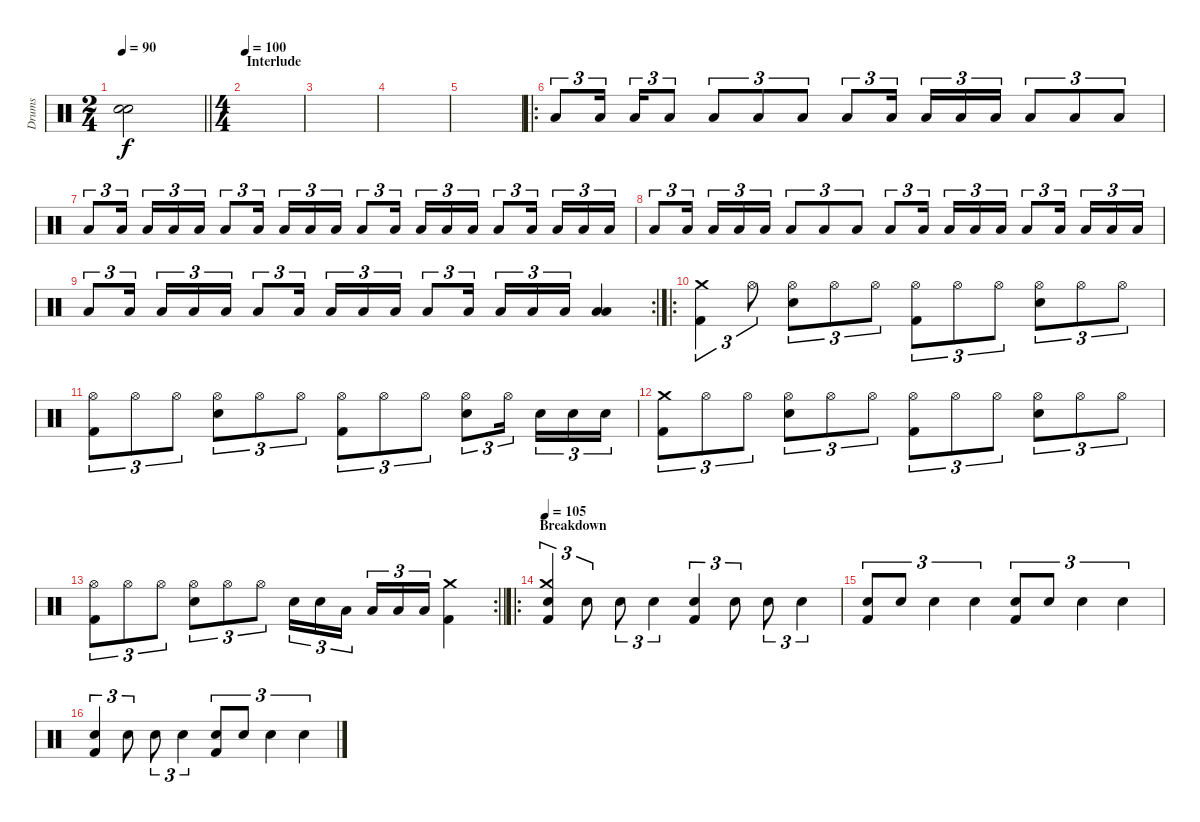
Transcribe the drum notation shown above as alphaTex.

\track ("Drums" "Drums") {instrument percussion}
\staff {score}
\articulation defaults
\ts (2 4)
\tempo 90
\clef neutral
\barLineRight lightlight
\ks c
("Snare (hit)"{t} "Snare (hit)"{t}).2{dy f} |
\ts (4 4)
\section ("" "Interlude")
\tempo 100
|
|
|
|
\ro "Low Floor Tom (hit)".8{tu (3 2)} "Low Floor Tom (hit)".16{tu (3 2) beam splitsecondary} "Low Floor Tom (hit)".16{tu (3 2)} "Low Floor Tom (hit)".8{tu (3 2)} "Low Floor Tom (hit)".8{tu (3 2)} "Low Floor Tom (hit)".8{tu (3 2)} "Low Floor Tom (hit)".8{tu (3 2)} "Low Floor Tom (hit)".8{tu (3 2)} "Low Floor Tom (hit)".16{tu (3 2) beam splitsecondary} "Low Floor Tom (hit)".16{tu (3 2)} "Low Floor Tom (hit)".16{tu (3 2)} "Low Floor Tom (hit)".16{tu (3 2)} "Low Floor Tom (hit)".8{tu (3 2)} "Low Floor Tom (hit)".8{tu (3 2)} "Low Floor Tom (hit)".8{tu (3 2)}
|
"Low Floor Tom (hit)".8{tu (3 2)} "Low Floor Tom (hit)".16{tu (3 2) beam splitsecondary} "Low Floor Tom (hit)".16{tu (3 2)} "Low Floor Tom (hit)".16{tu (3 2)} "Low Floor Tom (hit)".16{tu (3 2)} "Low Floor Tom (hit)".8{tu (3 2)} "Low Floor Tom (hit)".16{tu (3 2) beam splitsecondary} "Low Floor Tom (hit)".16{tu (3 2)} "Low Floor Tom (hit)".16{tu (3 2)} "Low Floor Tom (hit)".16{tu (3 2)} "Low Floor Tom (hit)".8{tu (3 2)} "Low Floor Tom (hit)".16{tu (3 2) beam splitsecondary} "Low Floor Tom (hit)".16{tu (3 2)} "Low Floor Tom (hit)".16{tu (3 2)} "Low Floor Tom (hit)".16{tu (3 2)} "Low Floor Tom (hit)".8{tu (3 2)} "Low Floor Tom (hit)".16{tu (3 2) beam splitsecondary} "Low Floor Tom (hit)".16{tu (3 2)} "Low Tom (hit)".16{tu (3 2)} "Low Tom (hit)".16{tu (3 2)} |
"Low Floor Tom (hit)".8{tu (3 2)} "Low Floor Tom (hit)".16{tu (3 2) beam splitsecondary} "Low Floor Tom (hit)".16{tu (3 2)} "Low Floor Tom (hit)".16{tu (3 2)} "Low Floor Tom (hit)".16{tu (3 2)} "Low Floor Tom (hit)".8{tu (3 2)} "Low Floor Tom (hit)".8{tu (3 2)} "Low Floor Tom (hit)".8{tu (3 2)} "Low Floor Tom (hit)".8{tu (3 2)} "Low Floor Tom (hit)".16{tu (3 2) beam splitsecondary} "Low Floor Tom (hit)".16{tu (3 2)} "Low Floor Tom (hit)".16{tu (3 2)} "Low Floor Tom (hit)".16{tu (3 2)} "Low Floor Tom (hit)".8{tu (3 2)} "Low Floor Tom (hit)".16{tu (3 2) beam splitsecondary} "Low Floor Tom (hit)".16{tu (3 2)} "Low Floor Tom (hit)".16{tu (3 2)} "Low Floor Tom (hit)".16{tu (3 2)} |
\rc 2 "Low Floor Tom (hit)".8{tu (3 2)} "Low Floor Tom (hit)".16{tu (3 2) beam splitsecondary} "Low Floor Tom (hit)".16{tu (3 2)} "Low Floor Tom (hit)".16{tu (3 2)} "Low Floor Tom (hit)".16{tu (3 2)} "Low Floor Tom (hit)".8{tu (3 2)} "Low Floor Tom (hit)".16{tu (3 2) beam splitsecondary} "Low Floor Tom (hit)".16{tu (3 2)} "Low Floor Tom (hit)".16{tu (3 2)} "Low Floor Tom (hit)".16{tu (3 2)} "Low Floor Tom (hit)".8{tu (3 2)} "Low Floor Tom (hit)".16{tu (3 2) beam splitsecondary} "Low Floor Tom (hit)".16{tu (3 2)} "Low Floor Tom (hit)".16{tu (3 2)} "Low Floor Tom (hit)".16{tu (3 2)}
("Low Tom (hit)" "Low Floor Tom (hit)").4 |
\ro
("Crash medium (hit)" "Kick (hit) 2").4{tu (3 2)} "Hi-Hat (open)".8{tu (3 2)} ("Hi-Hat (open)" "Snare (hit) 2").8{tu (3 2)} "Hi-Hat (open)".8{tu (3 2)} "Hi-Hat (open)".8{tu (3 2)} ("Hi-Hat (open)" "Kick (hit) 2").8{tu (3 2)} "Hi-Hat (open)".8{tu (3 2)} "Hi-Hat (open)".8{tu (3 2)} ("Hi-Hat (open)" "Snare (hit) 2").8{tu (3 2)} "Hi-Hat (open)".8{tu (3 2)} "Hi-Hat (open)".8{tu (3 2)} |
("Hi-Hat (open)" "Kick (hit) 2").8{tu (3 2)} "Hi-Hat (open)".8{tu (3 2)} "Hi-Hat (open)".8{tu (3 2)} ("Hi-Hat (open)" "Snare (hit) 2").8{tu (3 2)} "Hi-Hat (open)".8{tu (3 2)} "Hi-Hat (open)".8{tu (3 2)} ("Hi-Hat (open)" "Kick (hit) 2").8{tu (3 2)} "Hi-Hat (open)".8{tu (3 2)} "Hi-Hat (open)".8{tu (3 2)} ("Hi-Hat (open)" "Snare (hit) 2").8{tu (3 2)} "Hi-Hat (open)".16{tu (3 2) beam splitsecondary} "Snare (hit) 2".16{tu (3 2)} "Snare (hit) 2".16{tu (3 2)} "Snare (hit) 2".16{tu (3 2)} |
("Crash medium (hit)" "Kick (hit) 2").8{tu (3 2)} "Hi-Hat (open)".8{tu (3 2)} "Hi-Hat (open)".8{tu (3 2)} ("Hi-Hat (open)" "Snare (hit) 2").8{tu (3 2)} "Hi-Hat (open)".8{tu (3 2)} "Hi-Hat (open)".8{tu (3 2)} ("Hi-Hat (open)" "Kick (hit) 2").8{tu (3 2)} "Hi-Hat (open)".8{tu (3 2)} "Hi-Hat (open)".8{tu (3 2)} ("Hi-Hat (open)" "Snare (hit) 2").8{tu (3 2)} "Hi-Hat (open)".8{tu (3 2)} "Hi-Hat (open)".8{tu (3 2)} |
\rc 2
\barLineRight lightlight
("Hi-Hat (open)" "Kick (hit) 2").8{tu (3 2)} "Hi-Hat (open)".8{tu (3 2)} "Hi-Hat (open)".8{tu (3 2)} ("Hi-Hat (open)" "Snare (hit) 2").8{tu (3 2)} "Hi-Hat (open)".8{tu (3 2)} "Hi-Hat (open)".8{tu (3 2)} "Snare (hit) 2".16{tu (3 2)} "Snare (hit) 2".16{tu (3 2)} "Low Tom (hit)".16{tu (3 2) beam splitsecondary} "Low Tom (hit)".16{tu (3 2)} "Low Floor Tom (hit)".16{tu (3 2)} "Low Floor Tom (hit)".16{tu (3 2)} ("Crash medium (hit)" "Kick (hit) 2").4 |
\ro
\section ("" "Breakdown")
\tempo 105
("Crash medium (hit)" "Snare (hit) 2" "Kick (hit) 2").4{tu (3 2)} "Snare (hit) 2".8{tu (3 2)} "Snare (hit) 2".8{tu (3 2)} "Snare (hit) 2".4{tu (3 2)} ("Snare (hit) 2" "Kick (hit) 2").4{tu (3 2)} "Snare (hit) 2".8{tu (3 2)} "Snare (hit) 2".8{tu (3 2)} "Snare (hit) 2".4{tu (3 2)} |
("Snare (hit) 2" "Kick (hit) 2").8{tu (3 2)} "Snare (hit) 2".8{tu (3 2)} "Snare (hit) 2".4{tu (3 2)} "Snare (hit) 2".4{tu (3 2)} ("Snare (hit) 2" "Kick (hit) 2").8{tu (3 2)} "Snare (hit) 2".8{tu (3 2)} "Snare (hit) 2".4{tu (3 2)} "Snare (hit) 2".4{tu (3 2)} |
("Snare (hit) 2" "Kick (hit) 2").4{tu (3 2)} "Snare (hit) 2".8{tu (3 2)} "Snare (hit) 2".8{tu (3 2)} "Snare (hit) 2".4{tu (3 2)} ("Snare (hit) 2" "Kick (hit) 2").8{tu (3 2)} "Snare (hit) 2".8{tu (3 2)} "Snare (hit) 2".4{tu (3 2)} "Snare (hit) 2".4{tu (3 2)}
